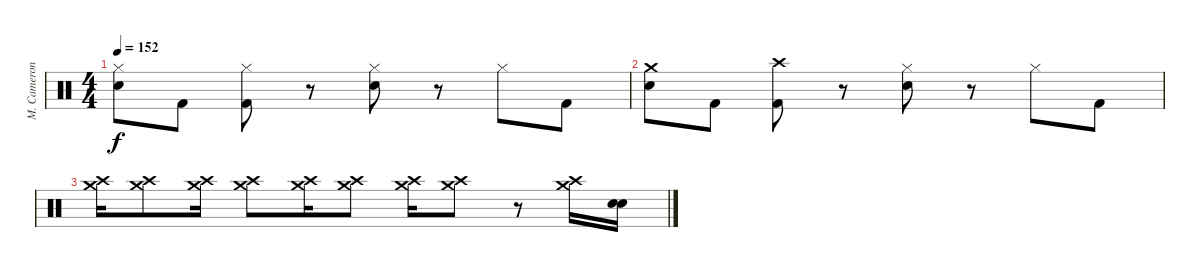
\track ("M. Cameron" "M. Cameron") {instrument percussion}
\staff {score}
\articulation defaults
\ts (4 4)
\tempo 152
\clef neutral
\ks c
("Hi-Hat (closed)" "Snare (hit) 2").8{dy f} "Kick (hit) 2".8 ("Hi-Hat (closed)" "Kick (hit) 2").8 r.8 ("Hi-Hat (closed)" "Snare (hit) 2").8 r.8 "Hi-Hat (closed)".8 "Kick (hit) 2".8 |
("Crash medium (hit)" "Snare (hit) 2").8 "Kick (hit) 2".8 ("Crash high (hit)" "Kick (hit) 2").8 r.8 ("Hi-Hat (closed)" "Snare (hit) 2").8 r.8 "Hi-Hat (closed)".8 "Kick (hit) 2".8 |
("Crash medium (hit)" "Crash high (hit)").16 ("Crash medium (hit)" "Crash high (hit)").8 ("Crash medium (hit)" "Crash high (hit)").16 ("Crash medium (hit)" "Crash high (hit)").8 ("Crash medium (hit)" "Crash high (hit)").16 ("Crash medium (hit)" "Crash high (hit)").8 ("Crash medium (hit)" "Crash high (hit)").16 ("Crash medium (hit)" "Crash high (hit)").8 r.8 ("Crash medium (hit)" "Crash high (hit)").16 ("Snare (hit)"{x} "Snare (hit)"{x}).16
